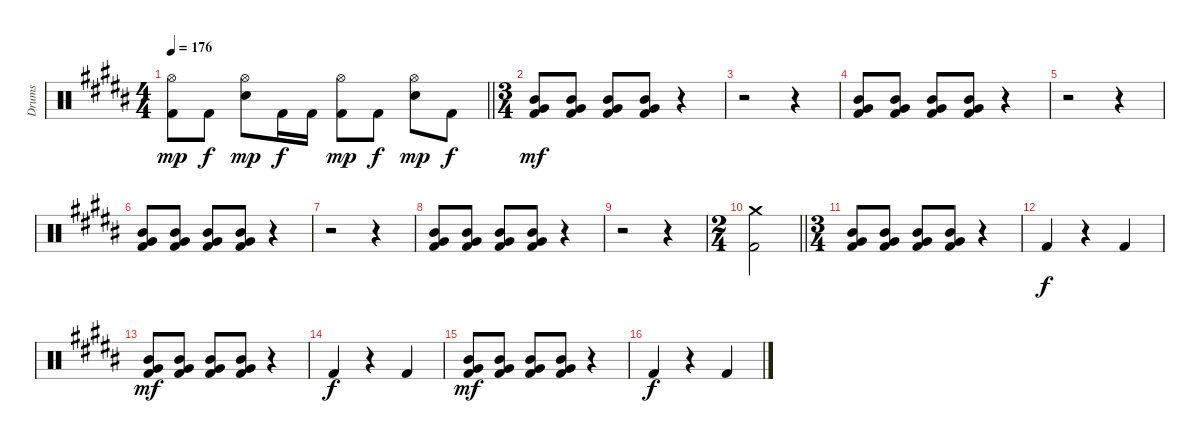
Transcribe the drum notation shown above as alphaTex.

\track ("Drums" "Drums") {instrument percussion}
\staff {score}
\articulation defaults
\ts (4 4)
\tempo 176
\clef neutral
\barLineRight lightlight
\ks g#minor
("Hi-Hat (open)" "Kick (hit) 2").8{dy mp} "Kick (hit) 2".8{dy f} ("Hi-Hat (open)" "Electric Snare (hit)").8{dy mp} "Kick (hit) 2".16{dy f} "Kick (hit) 2".16 ("Hi-Hat (open)" "Kick (hit) 2").8{dy mp} "Kick (hit) 2".8{dy f} ("Hi-Hat (open)" "Electric Snare (hit)").8{dy mp} "Kick (hit) 2".8{dy f} |
\ts (3 4)
\section ("" "")
("Mid Tom (hit)" "Very Low Tom (hit)" "Kick (hit) 2").8{dy mf} ("Mid Tom (hit)" "Very Low Tom (hit)" "Kick (hit) 2").8 ("Mid Tom (hit)" "Very Low Tom (hit)" "Kick (hit) 2").8 ("Mid Tom (hit)" "Very Low Tom (hit)" "Kick (hit) 2").8 r.4 |
r.2 r.4 |
("Mid Tom (hit)" "Very Low Tom (hit)" "Kick (hit) 2").8 ("Mid Tom (hit)" "Very Low Tom (hit)" "Kick (hit) 2").8 ("Mid Tom (hit)" "Very Low Tom (hit)" "Kick (hit) 2").8 ("Mid Tom (hit)" "Very Low Tom (hit)" "Kick (hit) 2").8 r.4 |
r.2 r.4 |
("Mid Tom (hit)" "Very Low Tom (hit)" "Kick (hit) 2").8 ("Mid Tom (hit)" "Very Low Tom (hit)" "Kick (hit) 2").8 ("Mid Tom (hit)" "Very Low Tom (hit)" "Kick (hit) 2").8 ("Mid Tom (hit)" "Very Low Tom (hit)" "Kick (hit) 2").8 r.4 |
r.2 r.4 |
("Mid Tom (hit)" "Very Low Tom (hit)" "Kick (hit) 2").8 ("Mid Tom (hit)" "Very Low Tom (hit)" "Kick (hit) 2").8 ("Mid Tom (hit)" "Very Low Tom (hit)" "Kick (hit) 2").8 ("Mid Tom (hit)" "Very Low Tom (hit)" "Kick (hit) 2").8 r.4 |
r.2 r.4 |
\ts (2 4)
\barLineRight lightlight
("Crash medium (hit)" "Kick (hit) 2").2 |
\ts (3 4)
\section ("" "")
("Mid Tom (hit)" "Very Low Tom (hit)" "Kick (hit) 2").8 ("Mid Tom (hit)" "Very Low Tom (hit)" "Kick (hit) 2").8 ("Mid Tom (hit)" "Very Low Tom (hit)" "Kick (hit) 2").8 ("Mid Tom (hit)" "Very Low Tom (hit)" "Kick (hit) 2").8 r.4 |
"Kick (hit) 2".4{dy f} r.4 "Kick (hit) 2".4 |
("Mid Tom (hit)" "Very Low Tom (hit)" "Kick (hit) 2").8{dy mf} ("Mid Tom (hit)" "Very Low Tom (hit)" "Kick (hit) 2").8 ("Mid Tom (hit)" "Very Low Tom (hit)" "Kick (hit) 2").8 ("Mid Tom (hit)" "Very Low Tom (hit)" "Kick (hit) 2").8 r.4 |
"Kick (hit) 2".4{dy f} r.4 "Kick (hit) 2".4 |
("Mid Tom (hit)" "Very Low Tom (hit)" "Kick (hit) 2").8{dy mf} ("Mid Tom (hit)" "Very Low Tom (hit)" "Kick (hit) 2").8 ("Mid Tom (hit)" "Very Low Tom (hit)" "Kick (hit) 2").8 ("Mid Tom (hit)" "Very Low Tom (hit)" "Kick (hit) 2").8 r.4 |
"Kick (hit) 2".4{dy f} r.4 "Kick (hit) 2".4
